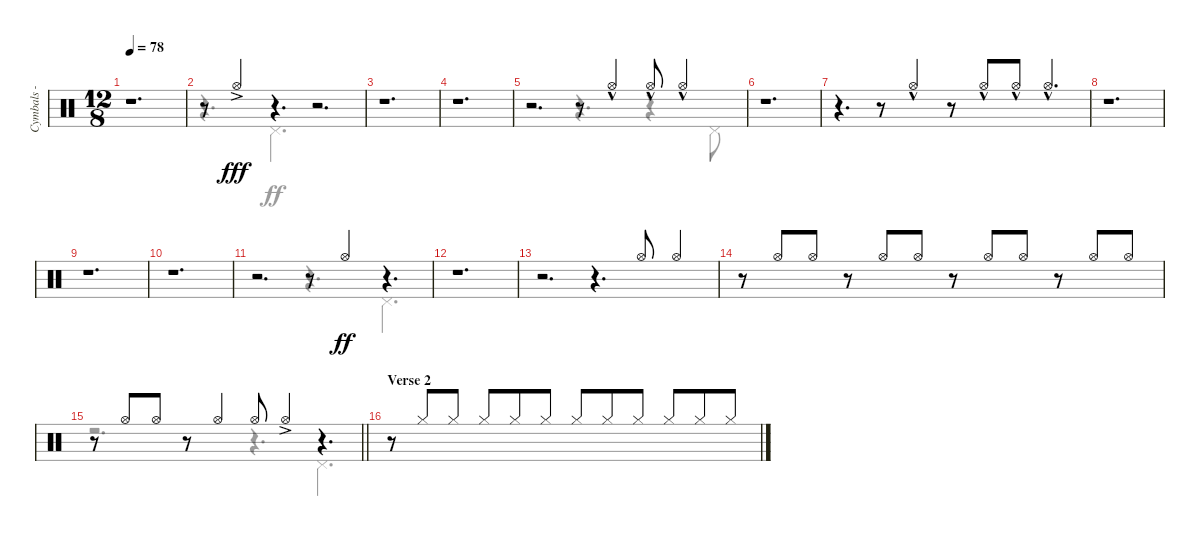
\track ("Cymbals - hi-hat" "Cymbals - ") {instrument percussion}
\staff {score}
\articulation defaults
\voice
\ts (12 8)
\tempo 78
\clef neutral
\ks c
r.1{d dy ff} |
r.8 "Hi-Hat (open)"{ac}.4{dy fff} r.4{d} r.2{d} |
r.1{d} |
r.1{d} |
r.2{d} r.8 "Hi-Hat (open)"{hac}.4 "Hi-Hat (open)"{hac}.8 "Hi-Hat (open)"{hac}.4 |
r.1{d} |
r.4{d} r.8 "Hi-Hat (open)"{hac}.4{beam Up} r.8 "Hi-Hat (open)"{hac}.8{beam Up} "Hi-Hat (open)"{hac}.8{beam Up} "Hi-Hat (open)"{hac}.4{d beam Up} |
r.1{d} |
r.1{d} |
r.1{d} |
r.2{d} r.8 "Hi-Hat (open)".4{dy ff} r.4{d} |
r.1{d} |
r.2{d} r.4{d} "Hi-Hat (open)".8{beam Up} "Hi-Hat (open)".4{beam Up} |
r.8 "Hi-Hat (open)".8{beam Up} "Hi-Hat (open)".8{beam Up} r.8 "Hi-Hat (open)".8{beam Up} "Hi-Hat (open)".8{beam Up} r.8 "Hi-Hat (open)".8{beam Up} "Hi-Hat (open)".8{beam Up} r.8 "Hi-Hat (open)".8{beam Up} "Hi-Hat (open)".8{beam Up} |
\barLineRight lightlight
r.8 "Hi-Hat (open)".8 "Hi-Hat (open)".8 r.8 "Hi-Hat (open)".4 "Hi-Hat (open)".8 "Hi-Hat (open)"{ac}.4 r.4{d} |
\section ("" "Verse 2")
r.8 "Hi-Hat (closed)".8{beam Up} "Hi-Hat (closed)".8{beam Up} "Hi-Hat (closed)".8{beam Up} "Hi-Hat (closed)".8{beam Up} "Hi-Hat (closed)".8{beam Up} "Hi-Hat (closed)".8{beam Up} "Hi-Hat (closed)".8{beam Up} "Hi-Hat (closed)".8{beam Up} "Hi-Hat (closed)".8{beam Up} "Hi-Hat (closed)".8{beam Up} "Hi-Hat (closed)".8{beam Up}
\voice
\clef neutral
\ottava regular
\simile none
\ks c
|
r.4{d} "Pedal Hi-Hat (hit)".4{d} r.2{d} |
|
|
r.2{d} r.4{d} r.4 "Pedal Hi-Hat (hit)".8 |
|
|
|
|
|
r.2{d} r.4{d} "Pedal Hi-Hat (hit)".4{d} |
|
|
|
\barLineRight lightlight
r.2{d} r.4{d} "Pedal Hi-Hat (hit)".4{d} |
